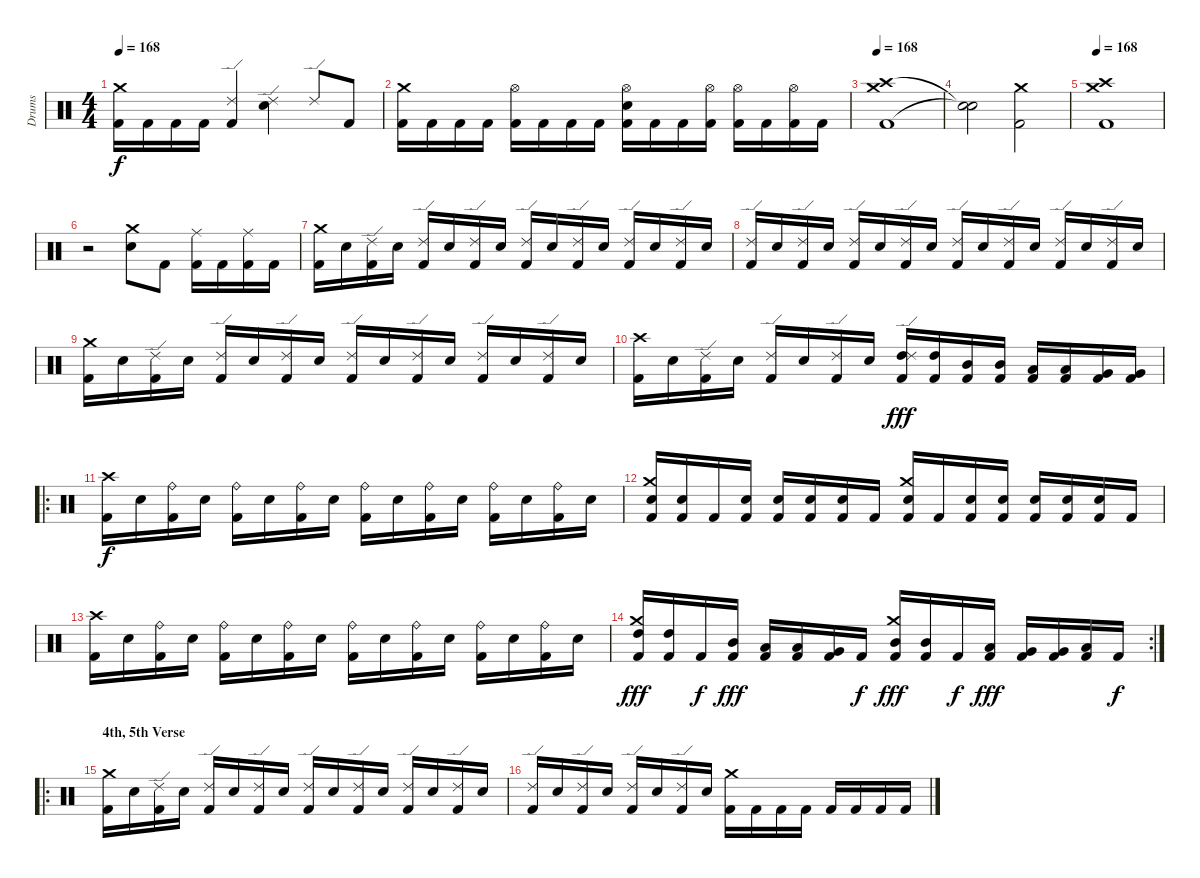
\track ("Drums" "Drums") {instrument percussion}
\staff {score}
\articulation defaults
\ts (4 4)
\tempo 168
\clef neutral
\ks c
("Kick (hit) 2" "Crash medium (hit)").16{dy f} "Kick (hit) 2".16 "Kick (hit) 2".16 "Kick (hit) 2".16 ("Kick (hit) 2" "Ride (edge) 2").4 ("Snare (hit) 2" "Ride (edge) 2").4 "Ride (edge) 2".8 "Kick (hit) 2".8 |
("Kick (hit) 2" "Crash medium (hit)").16 "Kick (hit) 2".16 "Kick (hit) 2".16 "Kick (hit) 2".16 ("Kick (hit) 2" "Hi-Hat (open)").16 "Kick (hit) 2".16 "Kick (hit) 2".16 "Kick (hit) 2".16 ("Kick (hit) 2" "Snare (hit) 2" "Hi-Hat (open)").16 "Kick (hit) 2".16 "Kick (hit) 2".16 ("Kick (hit) 2" "Hi-Hat (open)").16 ("Kick (hit) 2" "Hi-Hat (open)").16 "Kick (hit) 2".16 ("Kick (hit) 2" "Hi-Hat (open)").16 "Kick (hit) 2".16 |
\tempo 168
("Kick (hit) 2" "Crash high (hit)" "Crash medium (hit)").1 |
("Snare (hit)"{t} "Snare (hit)"{t}).2 ("Kick (hit) 2" "Crash medium (hit)").2 |
\tempo 168
("Kick (hit) 2" "Crash high (hit)" "Crash medium (hit)").1 |
r.2 ("Snare (hit) 2" "Crash medium (hit)").8 "Kick (hit) 2".8 ("Kick (hit) 2" "Ride (middle)").16 "Kick (hit) 2".16 ("Kick (hit) 2" "Ride (middle)").16 "Kick (hit) 2".16 |
("Kick (hit) 2" "Crash medium (hit)").16 "Snare (hit) 2".16 ("Kick (hit) 2" "Ride (edge) 2").16 "Snare (hit) 2".16 ("Kick (hit) 2" "Ride (edge) 2").16 "Snare (hit) 2".16 ("Kick (hit) 2" "Ride (edge) 2").16 "Snare (hit) 2".16 ("Kick (hit) 2" "Ride (edge) 2").16 "Snare (hit) 2".16 ("Kick (hit) 2" "Ride (edge) 2").16 "Snare (hit) 2".16 ("Kick (hit) 2" "Ride (edge) 2").16 "Snare (hit) 2".16 ("Kick (hit) 2" "Ride (edge) 2").16 "Snare (hit) 2".16 |
("Kick (hit) 2" "Ride (edge) 2").16 "Snare (hit) 2".16 ("Kick (hit) 2" "Ride (edge) 2").16 "Snare (hit) 2".16 ("Kick (hit) 2" "Ride (edge) 2").16 "Snare (hit) 2".16 ("Kick (hit) 2" "Ride (edge) 2").16 "Snare (hit) 2".16 ("Kick (hit) 2" "Ride (edge) 2").16 "Snare (hit) 2".16 ("Kick (hit) 2" "Ride (edge) 2").16 "Snare (hit) 2".16 ("Kick (hit) 2" "Ride (edge) 2").16 "Snare (hit) 2".16 ("Kick (hit) 2" "Ride (edge) 2").16 "Snare (hit) 2".16 |
("Kick (hit) 2" "Crash medium (hit)").16 "Snare (hit) 2".16 ("Kick (hit) 2" "Ride (edge) 2").16 "Snare (hit) 2".16 ("Kick (hit) 2" "Ride (edge) 2").16 "Snare (hit) 2".16 ("Kick (hit) 2" "Ride (edge) 2").16 "Snare (hit) 2".16 ("Kick (hit) 2" "Ride (edge) 2").16 "Snare (hit) 2".16 ("Kick (hit) 2" "Ride (edge) 2").16 "Snare (hit) 2".16 ("Kick (hit) 2" "Ride (edge) 2").16 "Snare (hit) 2".16 ("Kick (hit) 2" "Ride (edge) 2").16 "Snare (hit) 2".16 |
("Kick (hit) 2" "Crash high (hit)").16 "Snare (hit) 2".16 ("Kick (hit) 2" "Ride (edge) 2").16 "Snare (hit) 2".16 ("Kick (hit) 2" "Ride (edge) 2").16 "Snare (hit) 2".16 ("Kick (hit) 2" "Ride (edge) 2").16 "Snare (hit) 2".16 ("Kick (hit) 2" "High Tom (hit)" "Ride (edge) 2").16{dy fff} ("Kick (hit) 2" "High Tom (hit)").16 ("Kick (hit) 2" "Mid Tom (hit)").16 ("Kick (hit) 2" "Mid Tom (hit)").16 ("Kick (hit) 2" "Low Tom (hit)").16 ("Kick (hit) 2" "Low Tom (hit)").16 ("Kick (hit) 2" "Very Low Tom (hit)").16 ("Kick (hit) 2" "Very Low Tom (hit)").16 |
\ro
("Kick (hit) 2" "Crash high (hit)").16{dy f} "Snare (hit) 2".16 ("Kick (hit) 2" "Ride (bell)").16 "Snare (hit) 2".16 ("Kick (hit) 2" "Ride (bell)").16 "Snare (hit) 2".16 ("Kick (hit) 2" "Ride (bell)").16 "Snare (hit) 2".16 ("Kick (hit) 2" "Ride (bell)").16 "Snare (hit) 2".16 ("Kick (hit) 2" "Ride (bell)").16 "Snare (hit) 2".16 ("Kick (hit) 2" "Ride (bell)").16 "Snare (hit) 2".16 ("Kick (hit) 2" "Ride (bell)").16 "Snare (hit) 2".16 |
("Kick (hit) 2" "Snare (hit) 2" "Crash medium (hit)").16 ("Kick (hit) 2" "Snare (hit) 2").16 "Kick (hit) 2".16 ("Kick (hit) 2" "Snare (hit) 2").16 ("Kick (hit) 2" "Snare (hit) 2").16 ("Kick (hit) 2" "Snare (hit) 2").16 ("Kick (hit) 2" "Snare (hit) 2").16 "Kick (hit) 2".16 ("Kick (hit) 2" "Snare (hit) 2" "Crash medium (hit)").16 "Kick (hit) 2".16 ("Kick (hit) 2" "Snare (hit) 2").16 ("Kick (hit) 2" "Snare (hit) 2").16 ("Kick (hit) 2" "Snare (hit) 2").16 ("Kick (hit) 2" "Snare (hit) 2").16 ("Kick (hit) 2" "Snare (hit) 2").16 "Kick (hit) 2".16 |
("Kick (hit) 2" "Crash high (hit)").16 "Snare (hit) 2".16 ("Kick (hit) 2" "Ride (bell)").16 "Snare (hit) 2".16 ("Kick (hit) 2" "Ride (bell)").16 "Snare (hit) 2".16 ("Kick (hit) 2" "Ride (bell)").16 "Snare (hit) 2".16 ("Kick (hit) 2" "Ride (bell)").16 "Snare (hit) 2".16 ("Kick (hit) 2" "Ride (bell)").16 "Snare (hit) 2".16 ("Kick (hit) 2" "Ride (bell)").16 "Snare (hit) 2".16 ("Kick (hit) 2" "Ride (bell)").16 "Snare (hit) 2".16 |
\rc 2
("Kick (hit) 2" "High Tom (hit)" "Crash medium (hit)").16{dy fff} ("Kick (hit) 2" "High Tom (hit)").16 "Kick (hit) 2".16{dy f} ("Kick (hit) 2" "Mid Tom (hit)").16{dy fff} ("Kick (hit) 2" "Low Tom (hit)").16 ("Kick (hit) 2" "Low Tom (hit)").16 ("Kick (hit) 2" "Very Low Tom (hit)").16 "Kick (hit) 2".16{dy f} ("Kick (hit) 2" "Mid Tom (hit)" "Crash medium (hit)").16{dy fff} ("Kick (hit) 2" "Mid Tom (hit)").16 "Kick (hit) 2".16{dy f} ("Kick (hit) 2" "Low Tom (hit)").16{dy fff} ("Kick (hit) 2" "Very Low Tom (hit)").16 ("Kick (hit) 2" "Very Low Tom (hit)").16 ("Kick (hit) 2" "Low Floor Tom (hit)").16 "Kick (hit) 2".16{dy f} |
\ro
\section ("" "4th, 5th Verse")
("Kick (hit) 2" "Crash medium (hit)").16 "Snare (hit) 2".16 ("Kick (hit) 2" "Ride (edge) 2").16 "Snare (hit) 2".16 ("Kick (hit) 2" "Ride (edge) 2").16 "Snare (hit) 2".16 ("Kick (hit) 2" "Ride (edge) 2").16 "Snare (hit) 2".16 ("Kick (hit) 2" "Ride (edge) 2").16 "Snare (hit) 2".16 ("Kick (hit) 2" "Ride (edge) 2").16 "Snare (hit) 2".16 ("Kick (hit) 2" "Ride (edge) 2").16 "Snare (hit) 2".16 ("Kick (hit) 2" "Ride (edge) 2").16 "Snare (hit) 2".16 |
("Kick (hit) 2" "Ride (edge) 2").16 "Snare (hit) 2".16 ("Kick (hit) 2" "Ride (edge) 2").16 "Snare (hit) 2".16 ("Kick (hit) 2" "Ride (edge) 2").16 "Snare (hit) 2".16 ("Kick (hit) 2" "Ride (edge) 2").16 "Snare (hit) 2".16 ("Kick (hit) 2" "Crash medium (hit)").16 "Kick (hit) 2".16 "Kick (hit) 2".16 "Kick (hit) 2".16 "Kick (hit) 2".16 "Kick (hit) 2".16 "Kick (hit) 2".16 "Kick (hit) 2".16
